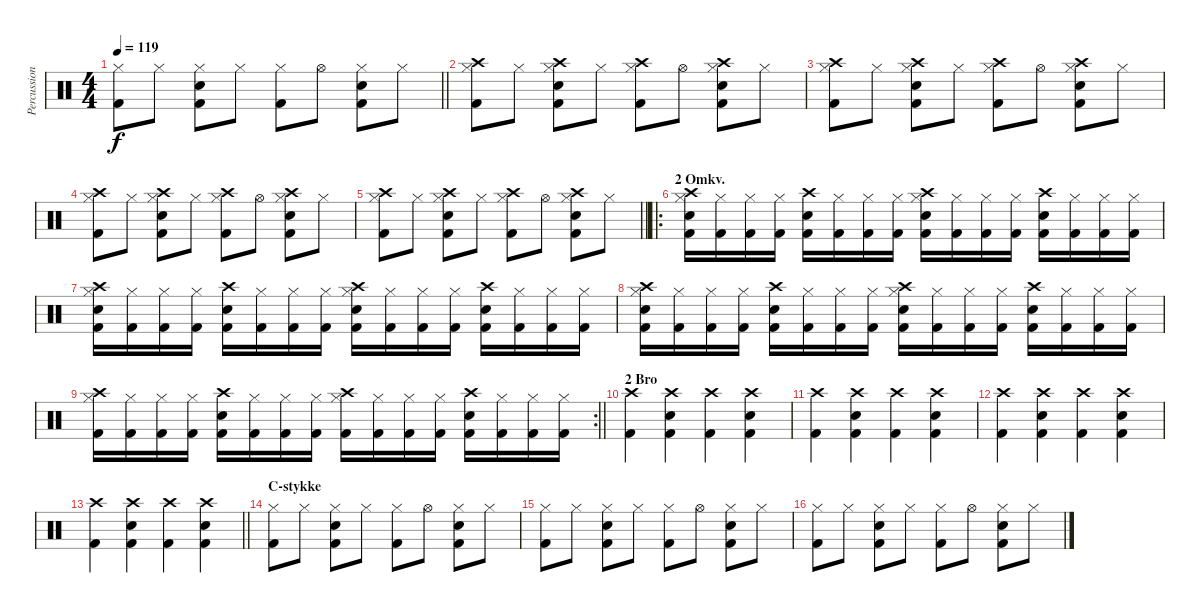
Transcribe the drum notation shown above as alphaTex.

\track ("Percussion" "Percussion") {instrument percussion}
\staff {score}
\articulation defaults
\ts (4 4)
\tempo 119
\clef neutral
\barLineRight lightlight
\ks c
("Hi-Hat (closed)" "Kick (hit) 2").8{dy f} "Hi-Hat (closed)".8 ("Hi-Hat (closed)" "Snare (hit) 2" "Kick (hit) 2").8 "Hi-Hat (closed)".8 ("Hi-Hat (closed)" "Kick (hit) 2").8 "Hi-Hat (open)".8 ("Hi-Hat (closed)" "Snare (hit) 2" "Kick (hit) 2").8 "Hi-Hat (closed)".8 |
("Crash high (hit)" "Hi-Hat (closed)" "Kick (hit) 2").8 "Hi-Hat (closed)".8 ("Crash high (hit)" "Hi-Hat (closed)" "Snare (hit) 2" "Kick (hit) 2").8 "Hi-Hat (closed)".8 ("Crash high (hit)" "Hi-Hat (closed)" "Kick (hit) 2").8 "Hi-Hat (open)".8 ("Crash high (hit)" "Hi-Hat (closed)" "Snare (hit) 2" "Kick (hit) 2").8 "Hi-Hat (closed)".8 |
("Crash high (hit)" "Hi-Hat (closed)" "Kick (hit) 2").8 "Hi-Hat (closed)".8 ("Crash high (hit)" "Hi-Hat (closed)" "Snare (hit) 2" "Kick (hit) 2").8 "Hi-Hat (closed)".8 ("Crash high (hit)" "Hi-Hat (closed)" "Kick (hit) 2").8 "Hi-Hat (open)".8 ("Crash high (hit)" "Hi-Hat (closed)" "Snare (hit) 2" "Kick (hit) 2").8 "Hi-Hat (closed)".8 |
("Crash high (hit)" "Hi-Hat (closed)" "Kick (hit) 2").8 "Hi-Hat (closed)".8 ("Crash high (hit)" "Hi-Hat (closed)" "Snare (hit) 2" "Kick (hit) 2").8 "Hi-Hat (closed)".8 ("Crash high (hit)" "Hi-Hat (closed)" "Kick (hit) 2").8 "Hi-Hat (open)".8 ("Crash high (hit)" "Hi-Hat (closed)" "Snare (hit) 2" "Kick (hit) 2").8 "Hi-Hat (closed)".8 |
\barLineRight lightlight
("Crash high (hit)" "Hi-Hat (closed)" "Kick (hit) 2").8 "Hi-Hat (closed)".8 ("Crash high (hit)" "Hi-Hat (closed)" "Snare (hit) 2" "Kick (hit) 2").8 "Hi-Hat (closed)".8 ("Crash high (hit)" "Hi-Hat (closed)" "Kick (hit) 2").8 "Hi-Hat (open)".8 ("Crash high (hit)" "Hi-Hat (closed)" "Snare (hit) 2" "Kick (hit) 2").8 "Hi-Hat (closed)".8 |
\ro
\section ("" "2 Omkv.")
("Crash high (hit)" "Hi-Hat (closed)" "Snare (hit) 2" "Kick (hit) 2").16 ("Hi-Hat (closed)" "Kick (hit) 2").16 ("Hi-Hat (closed)" "Kick (hit) 2").16 ("Hi-Hat (closed)" "Kick (hit) 2").16 ("Crash high (hit)" "Snare (hit) 2" "Kick (hit) 2").16 ("Hi-Hat (closed)" "Kick (hit) 2").16 ("Hi-Hat (closed)" "Kick (hit) 2").16 ("Hi-Hat (closed)" "Kick (hit) 2").16 ("Crash high (hit)" "Hi-Hat (closed)" "Snare (hit) 2" "Kick (hit) 2").16 ("Hi-Hat (closed)" "Kick (hit) 2").16 ("Hi-Hat (closed)" "Kick (hit) 2").16 ("Hi-Hat (closed)" "Kick (hit) 2").16 ("Crash high (hit)" "Snare (hit) 2" "Kick (hit) 2").16 ("Hi-Hat (closed)" "Kick (hit) 2").16 ("Hi-Hat (closed)" "Kick (hit) 2").16 ("Hi-Hat (closed)" "Kick (hit) 2").16 |
("Crash high (hit)" "Hi-Hat (closed)" "Snare (hit) 2" "Kick (hit) 2").16 ("Hi-Hat (closed)" "Kick (hit) 2").16 ("Hi-Hat (closed)" "Kick (hit) 2").16 ("Hi-Hat (closed)" "Kick (hit) 2").16 ("Crash high (hit)" "Snare (hit) 2" "Kick (hit) 2").16 ("Hi-Hat (closed)" "Kick (hit) 2").16 ("Hi-Hat (closed)" "Kick (hit) 2").16 ("Hi-Hat (closed)" "Kick (hit) 2").16 ("Crash high (hit)" "Hi-Hat (closed)" "Snare (hit) 2" "Kick (hit) 2").16 ("Hi-Hat (closed)" "Kick (hit) 2").16 ("Hi-Hat (closed)" "Kick (hit) 2").16 ("Hi-Hat (closed)" "Kick (hit) 2").16 ("Crash high (hit)" "Snare (hit) 2" "Kick (hit) 2").16 ("Hi-Hat (closed)" "Kick (hit) 2").16 ("Hi-Hat (closed)" "Kick (hit) 2").16 ("Hi-Hat (closed)" "Kick (hit) 2").16 |
("Crash high (hit)" "Hi-Hat (closed)" "Snare (hit) 2" "Kick (hit) 2").16 ("Hi-Hat (closed)" "Kick (hit) 2").16 ("Hi-Hat (closed)" "Kick (hit) 2").16 ("Hi-Hat (closed)" "Kick (hit) 2").16 ("Crash high (hit)" "Snare (hit) 2" "Kick (hit) 2").16 ("Hi-Hat (closed)" "Kick (hit) 2").16 ("Hi-Hat (closed)" "Kick (hit) 2").16 ("Hi-Hat (closed)" "Kick (hit) 2").16 ("Crash high (hit)" "Hi-Hat (closed)" "Snare (hit) 2" "Kick (hit) 2").16 ("Hi-Hat (closed)" "Kick (hit) 2").16 ("Hi-Hat (closed)" "Kick (hit) 2").16 ("Hi-Hat (closed)" "Kick (hit) 2").16 ("Crash high (hit)" "Snare (hit) 2" "Kick (hit) 2").16 ("Hi-Hat (closed)" "Kick (hit) 2").16 ("Hi-Hat (closed)" "Kick (hit) 2").16 ("Hi-Hat (closed)" "Kick (hit) 2").16 |
\rc 2
\barLineRight lightlight
("Crash high (hit)" "Hi-Hat (closed)" "Kick (hit) 2").16 ("Hi-Hat (closed)" "Kick (hit) 2").16 ("Hi-Hat (closed)" "Kick (hit) 2").16 ("Hi-Hat (closed)" "Kick (hit) 2").16 ("Crash high (hit)" "Snare (hit) 2" "Kick (hit) 2").16 ("Hi-Hat (closed)" "Kick (hit) 2").16 ("Hi-Hat (closed)" "Kick (hit) 2").16 ("Hi-Hat (closed)" "Kick (hit) 2").16 ("Crash high (hit)" "Hi-Hat (closed)" "Kick (hit) 2").16 ("Hi-Hat (closed)" "Kick (hit) 2").16 ("Hi-Hat (closed)" "Kick (hit) 2").16 ("Hi-Hat (closed)" "Kick (hit) 2").16 ("Crash high (hit)" "Snare (hit) 2" "Kick (hit) 2").16 ("Hi-Hat (closed)" "Kick (hit) 2").16 ("Hi-Hat (closed)" "Kick (hit) 2").16 ("Hi-Hat (closed)" "Kick (hit) 2").16 |
\section ("" "2 Bro")
("Crash high (hit)" "Kick (hit) 2").4 ("Crash high (hit)" "Snare (hit) 2" "Kick (hit) 2").4 ("Crash high (hit)" "Kick (hit) 2").4 ("Crash high (hit)" "Snare (hit) 2" "Kick (hit) 2").4 |
("Crash high (hit)" "Kick (hit) 2").4 ("Crash high (hit)" "Snare (hit) 2" "Kick (hit) 2").4 ("Crash high (hit)" "Kick (hit) 2").4 ("Crash high (hit)" "Snare (hit) 2" "Kick (hit) 2").4 |
("Crash high (hit)" "Kick (hit) 2").4 ("Crash high (hit)" "Snare (hit) 2" "Kick (hit) 2").4 ("Crash high (hit)" "Kick (hit) 2").4 ("Crash high (hit)" "Snare (hit) 2" "Kick (hit) 2").4 |
\barLineRight lightlight
("Crash high (hit)" "Kick (hit) 2").4 ("Crash high (hit)" "Snare (hit) 2" "Kick (hit) 2").4 ("Crash high (hit)" "Kick (hit) 2").4 ("Crash high (hit)" "Snare (hit) 2" "Kick (hit) 2").4 |
\section ("" "C-stykke")
("Hi-Hat (closed)" "Kick (hit) 2").8 "Hi-Hat (closed)".8 ("Hi-Hat (closed)" "Snare (hit) 2" "Kick (hit) 2").8 "Hi-Hat (closed)".8 ("Hi-Hat (closed)" "Kick (hit) 2").8 "Hi-Hat (open)".8 ("Hi-Hat (closed)" "Snare (hit) 2" "Kick (hit) 2").8 "Hi-Hat (closed)".8 |
("Hi-Hat (closed)" "Kick (hit) 2").8 "Hi-Hat (closed)".8 ("Hi-Hat (closed)" "Snare (hit) 2" "Kick (hit) 2").8 "Hi-Hat (closed)".8 ("Hi-Hat (closed)" "Kick (hit) 2").8 "Hi-Hat (open)".8 ("Hi-Hat (closed)" "Snare (hit) 2" "Kick (hit) 2").8 "Hi-Hat (closed)".8 |
("Hi-Hat (closed)" "Kick (hit) 2").8 "Hi-Hat (closed)".8 ("Hi-Hat (closed)" "Snare (hit) 2" "Kick (hit) 2").8 "Hi-Hat (closed)".8 ("Hi-Hat (closed)" "Kick (hit) 2").8 "Hi-Hat (open)".8 ("Hi-Hat (closed)" "Snare (hit) 2" "Kick (hit) 2").8 "Hi-Hat (closed)".8
